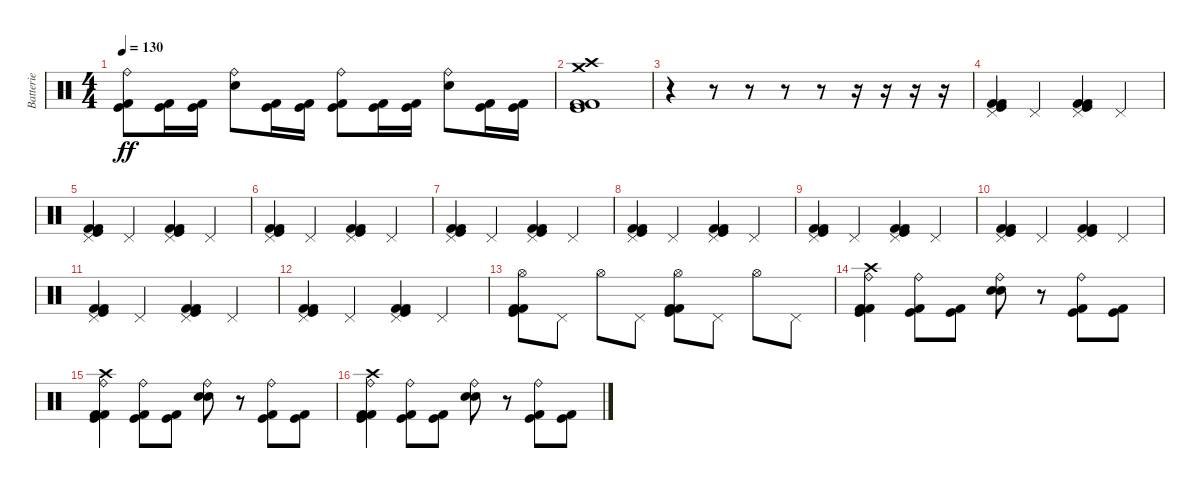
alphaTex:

\track ("Batterie" "Batterie") {instrument percussion}
\staff {score}
\articulation defaults
\ts (4 4)
\tempo 130
\clef neutral
\ks c
("Ride (bell)" "Kick (hit) 2" "Kick (hit)").8{dy ff} ("Kick (hit)" "Kick (hit) 2").16 ("Kick (hit) 2" "Kick (hit)").16 ("Ride (bell)" "Electric Snare (hit)").8 ("Kick (hit) 2" "Kick (hit)").16 ("Kick (hit)" "Kick (hit) 2").16 ("Ride (bell)" "Kick (hit)" "Kick (hit) 2").8 ("Kick (hit) 2" "Kick (hit)").16 ("Kick (hit)" "Kick (hit) 2").16 ("Ride (bell)" "Electric Snare (hit)").8 ("Kick (hit)" "Kick (hit) 2").16 ("Kick (hit) 2" "Kick (hit)").16 |
("Crash high (hit)" "Crash medium (hit)" "Kick (hit) 2" "Kick (hit) 2" "Kick (hit)").1 |
r.4 r.8 r.8 r.8 r.8 r.16 r.16 r.16 r.16 |
("Pedal Hi-Hat (hit)" "Kick (hit) 2" "Kick (hit) 2" "Kick (hit)").4 "Pedal Hi-Hat (hit)".4 ("Pedal Hi-Hat (hit)" "Kick (hit) 2" "Kick (hit)" "Kick (hit) 2").4 "Pedal Hi-Hat (hit)".4 |
("Pedal Hi-Hat (hit)" "Kick (hit) 2" "Kick (hit) 2" "Kick (hit)").4 "Pedal Hi-Hat (hit)".4 ("Pedal Hi-Hat (hit)" "Kick (hit) 2" "Kick (hit)" "Kick (hit) 2").4 "Pedal Hi-Hat (hit)".4 |
("Pedal Hi-Hat (hit)" "Kick (hit) 2" "Kick (hit) 2" "Kick (hit)").4 "Pedal Hi-Hat (hit)".4 ("Pedal Hi-Hat (hit)" "Kick (hit) 2" "Kick (hit)" "Kick (hit) 2").4 "Pedal Hi-Hat (hit)".4 |
("Pedal Hi-Hat (hit)" "Kick (hit) 2" "Kick (hit) 2" "Kick (hit)").4 "Pedal Hi-Hat (hit)".4 ("Pedal Hi-Hat (hit)" "Kick (hit) 2" "Kick (hit)" "Kick (hit) 2").4 "Pedal Hi-Hat (hit)".4 |
("Pedal Hi-Hat (hit)" "Kick (hit) 2" "Kick (hit) 2" "Kick (hit)").4 "Pedal Hi-Hat (hit)".4 ("Pedal Hi-Hat (hit)" "Kick (hit) 2" "Kick (hit)" "Kick (hit) 2").4 "Pedal Hi-Hat (hit)".4 |
("Pedal Hi-Hat (hit)" "Kick (hit) 2" "Kick (hit) 2" "Kick (hit)").4 "Pedal Hi-Hat (hit)".4 ("Pedal Hi-Hat (hit)" "Kick (hit) 2" "Kick (hit)" "Kick (hit) 2").4 "Pedal Hi-Hat (hit)".4 |
("Pedal Hi-Hat (hit)" "Kick (hit) 2" "Kick (hit) 2" "Kick (hit)").4 "Pedal Hi-Hat (hit)".4 ("Pedal Hi-Hat (hit)" "Kick (hit) 2" "Kick (hit)" "Kick (hit) 2").4 "Pedal Hi-Hat (hit)".4 |
("Pedal Hi-Hat (hit)" "Kick (hit) 2" "Kick (hit) 2" "Kick (hit)").4 "Pedal Hi-Hat (hit)".4 ("Pedal Hi-Hat (hit)" "Kick (hit) 2" "Kick (hit)" "Kick (hit) 2").4 "Pedal Hi-Hat (hit)".4 |
("Pedal Hi-Hat (hit)" "Kick (hit) 2" "Kick (hit) 2" "Kick (hit)").4 "Pedal Hi-Hat (hit)".4 ("Pedal Hi-Hat (hit)" "Kick (hit) 2" "Kick (hit)" "Kick (hit) 2").4 "Pedal Hi-Hat (hit)".4 |
("Hi-Hat (open)" "Kick (hit) 2" "Kick (hit) 2" "Kick (hit)").8 "Pedal Hi-Hat (hit)".8 "Hi-Hat (open)".8 "Pedal Hi-Hat (hit)".8 ("Hi-Hat (open)" "Kick (hit) 2" "Kick (hit)" "Kick (hit) 2").8 "Pedal Hi-Hat (hit)".8 "Hi-Hat (open)".8 "Pedal Hi-Hat (hit)".8 |
("Ride (bell)" "Crash high (hit)" "Kick (hit)" "Kick (hit) 2" "Kick (hit) 2").4 ("Ride (bell)" "Kick (hit) 2" "Kick (hit)").8 ("Kick (hit)" "Kick (hit) 2").8 ("Ride (bell)" "Electric Snare (hit)" "Electric Snare (hit)").8 r.8 ("Ride (bell)" "Kick (hit)" "Kick (hit) 2").8 ("Kick (hit)" "Kick (hit) 2").8 |
("Ride (bell)" "Crash high (hit)" "Kick (hit)" "Kick (hit) 2" "Kick (hit) 2").4 ("Ride (bell)" "Kick (hit) 2" "Kick (hit)").8 ("Kick (hit)" "Kick (hit) 2").8 ("Ride (bell)" "Electric Snare (hit)" "Electric Snare (hit)").8 r.8 ("Ride (bell)" "Kick (hit)" "Kick (hit) 2").8 ("Kick (hit)" "Kick (hit) 2").8 |
("Ride (bell)" "Crash high (hit)" "Kick (hit)" "Kick (hit) 2" "Kick (hit) 2").4 ("Ride (bell)" "Kick (hit) 2" "Kick (hit)").8 ("Kick (hit)" "Kick (hit) 2").8 ("Ride (bell)" "Electric Snare (hit)" "Electric Snare (hit)").8 r.8 ("Ride (bell)" "Kick (hit)" "Kick (hit) 2").8 ("Kick (hit)" "Kick (hit) 2").8
